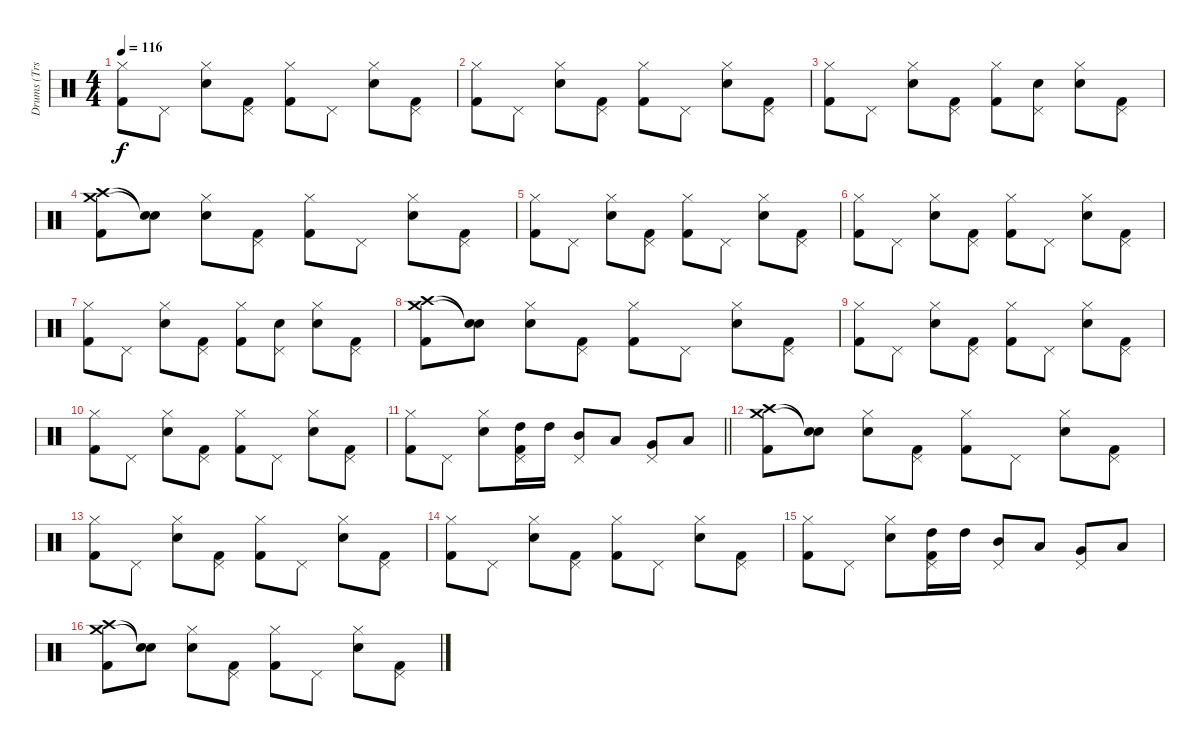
\track ("Drums (Trs. 7-8A, 10A/7-8B, 10B, 12-13B)" "Drums (Trs") {mute instrument percussion}
\staff {score}
\articulation defaults
\ts (4 4)
\tempo 116
\clef neutral
\ks c
("Hi-Hat (closed)" "Kick (hit) 2").8{dy f} "Pedal Hi-Hat (hit)".8 ("Electric Snare (hit)" "Hi-Hat (closed)").8 ("Pedal Hi-Hat (hit)" "Kick (hit) 2").8 ("Hi-Hat (closed)" "Kick (hit) 2").8 "Pedal Hi-Hat (hit)".8 ("Electric Snare (hit)" "Hi-Hat (closed)").8 ("Pedal Hi-Hat (hit)" "Kick (hit) 2").8 |
("Hi-Hat (closed)" "Kick (hit) 2").8 "Pedal Hi-Hat (hit)".8 ("Electric Snare (hit)" "Hi-Hat (closed)").8 ("Pedal Hi-Hat (hit)" "Kick (hit) 2").8 ("Hi-Hat (closed)" "Kick (hit) 2").8 "Pedal Hi-Hat (hit)".8 ("Electric Snare (hit)" "Hi-Hat (closed)").8 ("Pedal Hi-Hat (hit)" "Kick (hit) 2").8 |
("Hi-Hat (closed)" "Kick (hit) 2").8 "Pedal Hi-Hat (hit)".8 ("Electric Snare (hit)" "Hi-Hat (closed)").8 ("Pedal Hi-Hat (hit)" "Kick (hit) 2").8 ("Hi-Hat (closed)" "Kick (hit) 2").8 ("Electric Snare (hit)" "Pedal Hi-Hat (hit)").8 ("Electric Snare (hit)" "Hi-Hat (closed)").8 ("Pedal Hi-Hat (hit)" "Kick (hit) 2").8 |
("Crash medium (hit)" "Crash high (hit)" "Kick (hit) 2").8 ("Snare (hit)"{t} "Snare (hit)"{t}).8 ("Electric Snare (hit)" "Hi-Hat (closed)").8 ("Pedal Hi-Hat (hit)" "Kick (hit) 2").8 ("Hi-Hat (closed)" "Kick (hit) 2").8 "Pedal Hi-Hat (hit)".8 ("Electric Snare (hit)" "Hi-Hat (closed)").8 ("Pedal Hi-Hat (hit)" "Kick (hit) 2").8 |
("Hi-Hat (closed)" "Kick (hit) 2").8 "Pedal Hi-Hat (hit)".8 ("Electric Snare (hit)" "Hi-Hat (closed)").8 ("Pedal Hi-Hat (hit)" "Kick (hit) 2").8 ("Hi-Hat (closed)" "Kick (hit) 2").8 "Pedal Hi-Hat (hit)".8 ("Electric Snare (hit)" "Hi-Hat (closed)").8 ("Pedal Hi-Hat (hit)" "Kick (hit) 2").8 |
("Hi-Hat (closed)" "Kick (hit) 2").8 "Pedal Hi-Hat (hit)".8 ("Electric Snare (hit)" "Hi-Hat (closed)").8 ("Pedal Hi-Hat (hit)" "Kick (hit) 2").8 ("Hi-Hat (closed)" "Kick (hit) 2").8 "Pedal Hi-Hat (hit)".8 ("Electric Snare (hit)" "Hi-Hat (closed)").8 ("Pedal Hi-Hat (hit)" "Kick (hit) 2").8 |
("Hi-Hat (closed)" "Kick (hit) 2").8 "Pedal Hi-Hat (hit)".8 ("Electric Snare (hit)" "Hi-Hat (closed)").8 ("Pedal Hi-Hat (hit)" "Kick (hit) 2").8 ("Hi-Hat (closed)" "Kick (hit) 2").8 ("Electric Snare (hit)" "Pedal Hi-Hat (hit)").8 ("Electric Snare (hit)" "Hi-Hat (closed)").8 ("Pedal Hi-Hat (hit)" "Kick (hit) 2").8 |
("Crash medium (hit)" "Crash high (hit)" "Kick (hit) 2").8 ("Snare (hit)"{t} "Snare (hit)"{t}).8 ("Electric Snare (hit)" "Hi-Hat (closed)").8 ("Pedal Hi-Hat (hit)" "Kick (hit) 2").8 ("Hi-Hat (closed)" "Kick (hit) 2").8 "Pedal Hi-Hat (hit)".8 ("Electric Snare (hit)" "Hi-Hat (closed)").8 ("Pedal Hi-Hat (hit)" "Kick (hit) 2").8 |
("Hi-Hat (closed)" "Kick (hit) 2").8 "Pedal Hi-Hat (hit)".8 ("Electric Snare (hit)" "Hi-Hat (closed)").8 ("Pedal Hi-Hat (hit)" "Kick (hit) 2").8 ("Hi-Hat (closed)" "Kick (hit) 2").8 "Pedal Hi-Hat (hit)".8 ("Electric Snare (hit)" "Hi-Hat (closed)").8 ("Pedal Hi-Hat (hit)" "Kick (hit) 2").8 |
("Hi-Hat (closed)" "Kick (hit) 2").8 "Pedal Hi-Hat (hit)".8 ("Electric Snare (hit)" "Hi-Hat (closed)").8 ("Pedal Hi-Hat (hit)" "Kick (hit) 2").8 ("Hi-Hat (closed)" "Kick (hit) 2").8 "Pedal Hi-Hat (hit)".8 ("Electric Snare (hit)" "Hi-Hat (closed)").8 ("Pedal Hi-Hat (hit)" "Kick (hit) 2").8 |
\barLineRight lightlight
("Hi-Hat (closed)" "Kick (hit) 2").8 "Pedal Hi-Hat (hit)".8 ("Electric Snare (hit)" "Hi-Hat (closed)").8 ("Pedal Hi-Hat (hit)" "High Tom (hit)" "Kick (hit) 2").16 "High Tom (hit)".16 ("Pedal Hi-Hat (hit)" "Mid Tom (hit)").8 "Low Tom (hit)".8 ("Pedal Hi-Hat (hit)" "Very Low Tom (hit)").8 "Low Floor Tom (hit)".8 |
("Crash medium (hit)" "Crash high (hit)" "Kick (hit) 2").8 ("Snare (hit)"{t} "Snare (hit)"{t}).8 ("Electric Snare (hit)" "Hi-Hat (closed)").8 ("Pedal Hi-Hat (hit)" "Kick (hit) 2").8 ("Hi-Hat (closed)" "Kick (hit) 2").8 "Pedal Hi-Hat (hit)".8 ("Electric Snare (hit)" "Hi-Hat (closed)").8 ("Pedal Hi-Hat (hit)" "Kick (hit) 2").8 |
("Hi-Hat (closed)" "Kick (hit) 2").8 "Pedal Hi-Hat (hit)".8 ("Electric Snare (hit)" "Hi-Hat (closed)").8 ("Pedal Hi-Hat (hit)" "Kick (hit) 2").8 ("Hi-Hat (closed)" "Kick (hit) 2").8 "Pedal Hi-Hat (hit)".8 ("Electric Snare (hit)" "Hi-Hat (closed)").8 ("Pedal Hi-Hat (hit)" "Kick (hit) 2").8 |
("Hi-Hat (closed)" "Kick (hit) 2").8 "Pedal Hi-Hat (hit)".8 ("Electric Snare (hit)" "Hi-Hat (closed)").8 ("Pedal Hi-Hat (hit)" "Kick (hit) 2").8 ("Hi-Hat (closed)" "Kick (hit) 2").8 "Pedal Hi-Hat (hit)".8 ("Electric Snare (hit)" "Hi-Hat (closed)").8 ("Pedal Hi-Hat (hit)" "Kick (hit) 2").8 |
("Hi-Hat (closed)" "Kick (hit) 2").8 "Pedal Hi-Hat (hit)".8 ("Electric Snare (hit)" "Hi-Hat (closed)").8 ("Pedal Hi-Hat (hit)" "High Tom (hit)" "Kick (hit) 2").16 "High Tom (hit)".16 ("Pedal Hi-Hat (hit)" "Mid Tom (hit)").8 "Low Tom (hit)".8 ("Pedal Hi-Hat (hit)" "Very Low Tom (hit)").8 "Low Floor Tom (hit)".8 |
("Crash medium (hit)" "Crash high (hit)" "Kick (hit) 2").8 ("Snare (hit)"{t} "Snare (hit)"{t}).8 ("Electric Snare (hit)" "Hi-Hat (closed)").8 ("Pedal Hi-Hat (hit)" "Kick (hit) 2").8 ("Hi-Hat (closed)" "Kick (hit) 2").8 "Pedal Hi-Hat (hit)".8 ("Electric Snare (hit)" "Hi-Hat (closed)").8 ("Pedal Hi-Hat (hit)" "Kick (hit) 2").8
